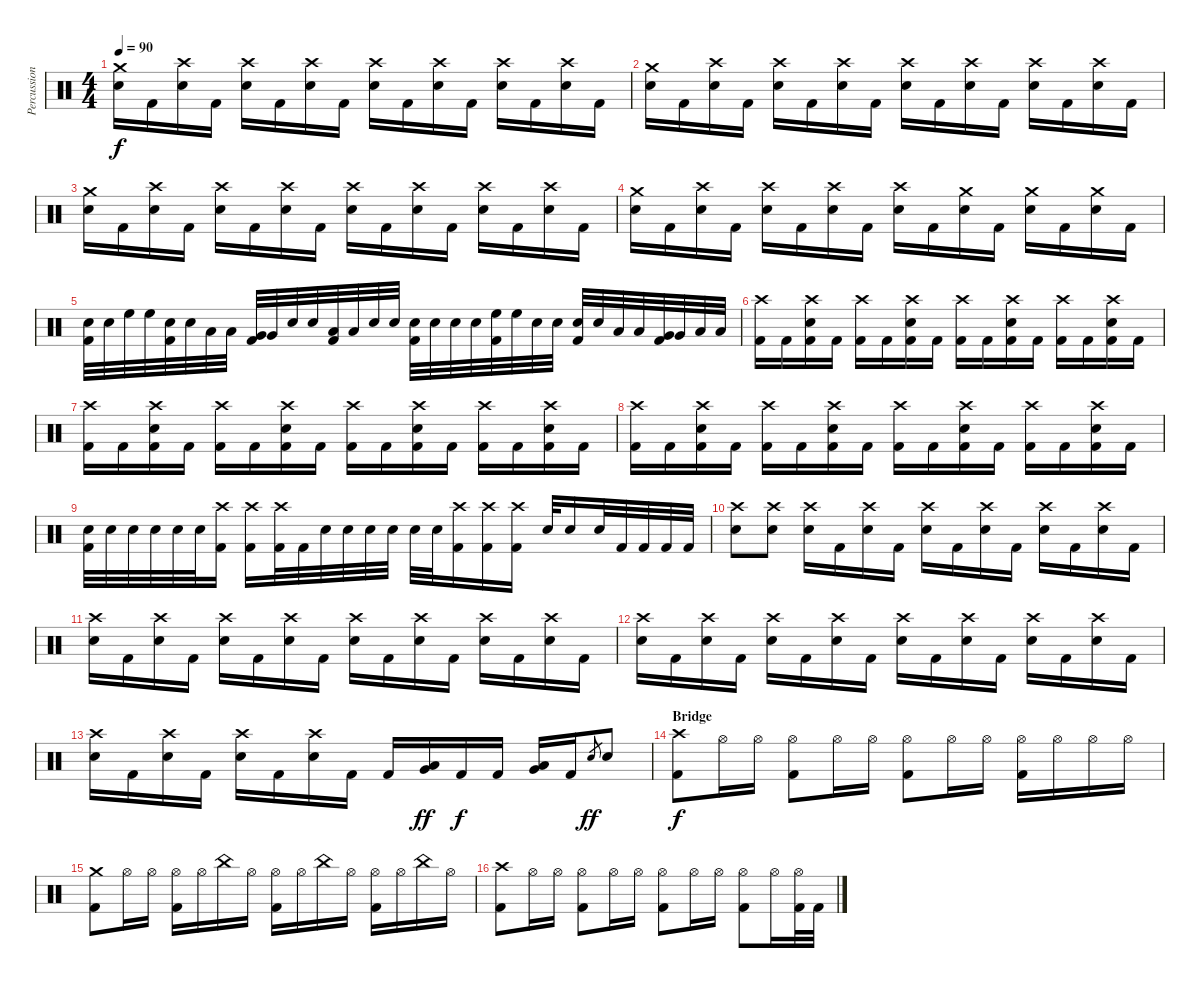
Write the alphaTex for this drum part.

\track ("Percussion" "Percussion") {instrument percussion}
\staff {score}
\articulation defaults
\ts (4 4)
\tempo 90
\clef neutral
\ks c
("Crash medium (hit)" "Electric Snare (hit)").16{dy f} "Kick (hit) 2".16 ("Crash high (hit)" "Electric Snare (hit)").16 "Kick (hit) 2".16 ("Crash high (hit)" "Electric Snare (hit)").16 "Kick (hit) 2".16 ("Crash high (hit)" "Electric Snare (hit)").16 "Kick (hit) 2".16 ("Crash high (hit)" "Electric Snare (hit)").16 "Kick (hit) 2".16 ("Crash high (hit)" "Electric Snare (hit)").16 "Kick (hit) 2".16 ("Crash high (hit)" "Electric Snare (hit)").16 "Kick (hit) 2".16 ("Crash high (hit)" "Electric Snare (hit)").16 "Kick (hit) 2".16 |
("Crash medium (hit)" "Electric Snare (hit)").16 "Kick (hit) 2".16 ("Crash high (hit)" "Electric Snare (hit)").16 "Kick (hit) 2".16 ("Crash high (hit)" "Electric Snare (hit)").16 "Kick (hit) 2".16 ("Crash high (hit)" "Electric Snare (hit)").16 "Kick (hit) 2".16 ("Crash high (hit)" "Electric Snare (hit)").16 "Kick (hit) 2".16 ("Crash high (hit)" "Electric Snare (hit)").16 "Kick (hit) 2".16 ("Crash high (hit)" "Electric Snare (hit)").16 "Kick (hit) 2".16 ("Crash high (hit)" "Electric Snare (hit)").16 "Kick (hit) 2".16 |
("Crash medium (hit)" "Electric Snare (hit)").16 "Kick (hit) 2".16 ("Crash high (hit)" "Electric Snare (hit)").16 "Kick (hit) 2".16 ("Crash high (hit)" "Electric Snare (hit)").16 "Kick (hit) 2".16 ("Crash high (hit)" "Electric Snare (hit)").16 "Kick (hit) 2".16 ("Crash high (hit)" "Electric Snare (hit)").16 "Kick (hit) 2".16 ("Crash high (hit)" "Electric Snare (hit)").16 "Kick (hit) 2".16 ("Crash high (hit)" "Electric Snare (hit)").16 "Kick (hit) 2".16 ("Crash high (hit)" "Electric Snare (hit)").16 "Kick (hit) 2".16 |
("Crash medium (hit)" "Electric Snare (hit)").16 "Kick (hit) 2".16 ("Crash high (hit)" "Electric Snare (hit)").16 "Kick (hit) 2".16 ("Crash high (hit)" "Electric Snare (hit)").16 "Kick (hit) 2".16 ("Crash high (hit)" "Electric Snare (hit)").16 "Kick (hit) 2".16 ("Crash high (hit)" "Electric Snare (hit)").16 "Kick (hit) 2".16 ("Crash medium (hit)" "Electric Snare (hit)").16 "Kick (hit) 2".16 ("Crash medium (hit)" "Electric Snare (hit)").16 "Kick (hit) 2".16 ("Crash medium (hit)" "Electric Snare (hit)").16 "Kick (hit) 2".16 |
("Electric Snare (hit)" "Kick (hit) 2").32 "Electric Snare (hit)".32 "High Floor Tom (hit)".32 "High Floor Tom (hit)".32 ("Electric Snare (hit)" "Kick (hit) 2").32 "Electric Snare (hit)".32 "Low Tom (hit)".32 "Low Tom (hit)".32 ("Very Low Tom (hit)" "Kick (hit) 2").32 "Very Low Tom (hit)".32 "Electric Snare (hit)".32 "Electric Snare (hit)".32 ("Low Floor Tom (hit)" "Kick (hit) 2").32 "Low Floor Tom (hit)".32 "Electric Snare (hit)".32 "Electric Snare (hit)".32 ("Electric Snare (hit)" "Kick (hit) 2").32 "Electric Snare (hit)".32 "Electric Snare (hit)".32 "Electric Snare (hit)".32 ("High Floor Tom (hit)" "Kick (hit) 2").32 "High Floor Tom (hit)".32 "Electric Snare (hit)".32 "Electric Snare (hit)".32 ("Electric Snare (hit)" "Kick (hit) 2").32 "Electric Snare (hit)".32 "Low Tom (hit)".32 "Low Tom (hit)".32 ("Very Low Tom (hit)" "Kick (hit) 2").32 "Very Low Tom (hit)".32 "Low Floor Tom (hit)".32 "Low Floor Tom (hit)".32 |
("Crash high (hit)" "Kick (hit) 2").16 "Kick (hit) 2".16 ("Crash high (hit)" "Electric Snare (hit)" "Kick (hit) 2").16 "Kick (hit) 2".16 ("Crash high (hit)" "Kick (hit) 2").16 "Kick (hit) 2".16 ("Crash high (hit)" "Electric Snare (hit)" "Kick (hit) 2").16 "Kick (hit) 2".16 ("Crash high (hit)" "Kick (hit) 2").16 "Kick (hit) 2".16 ("Crash high (hit)" "Electric Snare (hit)" "Kick (hit) 2").16 "Kick (hit) 2".16 ("Crash high (hit)" "Kick (hit) 2").16 "Kick (hit) 2".16 ("Crash high (hit)" "Electric Snare (hit)" "Kick (hit) 2").16 "Kick (hit) 2".16 |
("Crash high (hit)" "Kick (hit) 2").16 "Kick (hit) 2".16 ("Crash high (hit)" "Electric Snare (hit)" "Kick (hit) 2").16 "Kick (hit) 2".16 ("Crash high (hit)" "Kick (hit) 2").16 "Kick (hit) 2".16 ("Crash high (hit)" "Electric Snare (hit)" "Kick (hit) 2").16 "Kick (hit) 2".16 ("Crash high (hit)" "Kick (hit) 2").16 "Kick (hit) 2".16 ("Crash high (hit)" "Electric Snare (hit)" "Kick (hit) 2").16 "Kick (hit) 2".16 ("Crash high (hit)" "Kick (hit) 2").16 "Kick (hit) 2".16 ("Crash high (hit)" "Electric Snare (hit)" "Kick (hit) 2").16 "Kick (hit) 2".16 |
("Crash high (hit)" "Kick (hit) 2").16 "Kick (hit) 2".16 ("Crash high (hit)" "Electric Snare (hit)" "Kick (hit) 2").16 "Kick (hit) 2".16 ("Crash high (hit)" "Kick (hit) 2").16 "Kick (hit) 2".16 ("Crash high (hit)" "Electric Snare (hit)" "Kick (hit) 2").16 "Kick (hit) 2".16 ("Crash high (hit)" "Kick (hit) 2").16 "Kick (hit) 2".16 ("Crash high (hit)" "Electric Snare (hit)" "Kick (hit) 2").16 "Kick (hit) 2".16 ("Crash high (hit)" "Kick (hit) 2").16 "Kick (hit) 2".16 ("Crash high (hit)" "Electric Snare (hit)" "Kick (hit) 2").16 "Kick (hit) 2".16 |
("Electric Snare (hit)" "Kick (hit) 2").32 "Electric Snare (hit)".32 "Electric Snare (hit)".32 "Electric Snare (hit)".32 "Electric Snare (hit)".32 "Electric Snare (hit)".32 ("Crash high (hit)" "Kick (hit) 2").16 ("Crash high (hit)" "Kick (hit) 2").16 ("Crash high (hit)" "Kick (hit) 2").32 "Kick (hit) 2".32 "Electric Snare (hit)".32 "Electric Snare (hit)".32 "Electric Snare (hit)".32 "Electric Snare (hit)".32 "Electric Snare (hit)".32 "Electric Snare (hit)".32 ("Crash high (hit)" "Kick (hit) 2").16 ("Crash high (hit)" "Kick (hit) 2").16 ("Crash high (hit)" "Kick (hit) 2").16 "Electric Snare (hit)".32 "Electric Snare (hit)".16 "Electric Snare (hit)".32 "Kick (hit) 2".32 "Kick (hit) 2".32 "Kick (hit) 2".32 "Kick (hit) 2".32 |
("Crash high (hit)" "Electric Snare (hit)").8 ("Crash high (hit)" "Electric Snare (hit)").8 ("Crash high (hit)" "Electric Snare (hit)").16 "Kick (hit) 2".16 ("Crash high (hit)" "Electric Snare (hit)").16 "Kick (hit) 2".16 ("Crash high (hit)" "Electric Snare (hit)").16 "Kick (hit) 2".16 ("Crash high (hit)" "Electric Snare (hit)").16 "Kick (hit) 2".16 ("Crash high (hit)" "Electric Snare (hit)").16 "Kick (hit) 2".16 ("Crash high (hit)" "Electric Snare (hit)").16 "Kick (hit) 2".16 |
("Crash high (hit)" "Electric Snare (hit)").16 "Kick (hit) 2".16 ("Crash high (hit)" "Electric Snare (hit)").16 "Kick (hit) 2".16 ("Crash high (hit)" "Electric Snare (hit)").16 "Kick (hit) 2".16 ("Crash high (hit)" "Electric Snare (hit)").16 "Kick (hit) 2".16 ("Crash high (hit)" "Electric Snare (hit)").16 "Kick (hit) 2".16 ("Crash high (hit)" "Electric Snare (hit)").16 "Kick (hit) 2".16 ("Crash high (hit)" "Electric Snare (hit)").16 "Kick (hit) 2".16 ("Crash high (hit)" "Electric Snare (hit)").16 "Kick (hit) 2".16 |
("Crash high (hit)" "Electric Snare (hit)").16 "Kick (hit) 2".16 ("Crash high (hit)" "Electric Snare (hit)").16 "Kick (hit) 2".16 ("Crash high (hit)" "Electric Snare (hit)").16 "Kick (hit) 2".16 ("Crash high (hit)" "Electric Snare (hit)").16 "Kick (hit) 2".16 ("Crash high (hit)" "Electric Snare (hit)").16 "Kick (hit) 2".16 ("Crash high (hit)" "Electric Snare (hit)").16 "Kick (hit) 2".16 ("Crash high (hit)" "Electric Snare (hit)").16 "Kick (hit) 2".16 ("Crash high (hit)" "Electric Snare (hit)").16 "Kick (hit) 2".16 |
("Crash high (hit)" "Electric Snare (hit)").16 "Kick (hit) 2".16 ("Crash high (hit)" "Electric Snare (hit)").16 "Kick (hit) 2".16 ("Crash high (hit)" "Electric Snare (hit)").16 "Kick (hit) 2".16 ("Crash high (hit)" "Electric Snare (hit)").16 "Kick (hit) 2".16 "Kick (hit) 2".16 ("Very Low Tom (hit)" "Low Tom (hit)").16{dy ff} "Kick (hit) 2".16{dy f} "Kick (hit) 2".16 ("Low Floor Tom (hit)" "Very Low Tom (hit)").16 "Kick (hit) 2".16 "Electric Snare (hit)".8{gr dy ff} "Electric Snare (hit)".8 |
\section ("" "Bridge")
("Crash high (hit)" "Kick (hit) 2").8{dy f} "Hi-Hat (open)".16 "Hi-Hat (open)".16 ("Hi-Hat (open)" "Kick (hit) 2").8 "Hi-Hat (open)".16 "Hi-Hat (open)".16 ("Hi-Hat (open)" "Kick (hit) 2").8 "Hi-Hat (open)".16 "Hi-Hat (open)".16 ("Hi-Hat (open)" "Kick (hit) 2").16 "Hi-Hat (open)".16 "Hi-Hat (open)".16 "Hi-Hat (open)".16 |
("Crash medium (hit)" "Kick (hit) 2").8 "Hi-Hat (open)".16 "Hi-Hat (open)".16 ("Hi-Hat (open)" "Kick (hit) 2").16 "Hi-Hat (open)".16 "China (hit)".16 "Hi-Hat (open)".16 ("Hi-Hat (open)" "Kick (hit) 2").16 "Hi-Hat (open)".16 "China (hit)".16 "Hi-Hat (open)".16 ("Hi-Hat (open)" "Kick (hit) 2").16 "Hi-Hat (open)".16 "China (hit)".16 "Hi-Hat (open)".16 |
("Crash high (hit)" "Kick (hit) 2").8 "Hi-Hat (open)".16 "Hi-Hat (open)".16 ("Hi-Hat (open)" "Kick (hit) 2").8 "Hi-Hat (open)".16 "Hi-Hat (open)".16 ("Hi-Hat (open)" "Kick (hit) 2").8 "Hi-Hat (open)".16 "Hi-Hat (open)".16 ("Hi-Hat (open)" "Kick (hit) 2").8 "Hi-Hat (open)".16 ("Hi-Hat (open)" "Kick (hit) 2").32 "Kick (hit) 2".32
